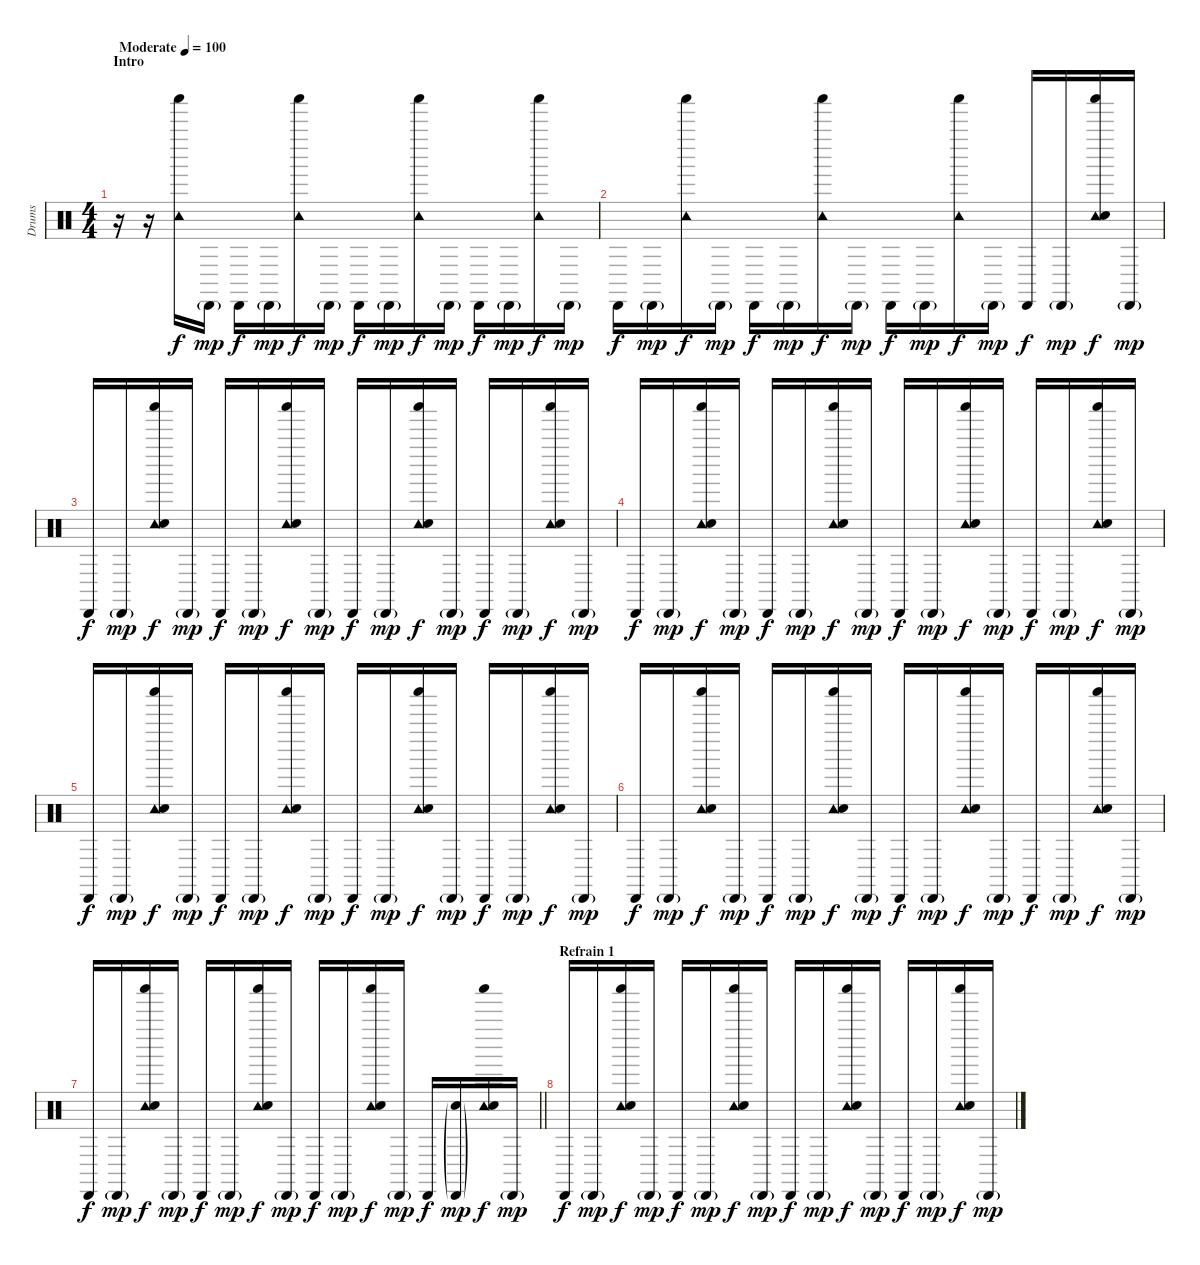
\track ("Drums" "Drums") {instrument percussion}
\staff {score}
\articulation defaults
\ts (4 4)
\section ("" "Intro")
\tempo (100 "Moderate")
\clef neutral
\ks c
r.16{dy f} r.16 ("Tambourine (hit)" "Shaker (hit)").16 "Cabasa (hit)"{g}.16{dy mp} "Cabasa (hit)".16{dy f} "Cabasa (hit)"{g}.16{dy mp} ("Tambourine (hit)" "Shaker (hit)").16{dy f} "Cabasa (hit)"{g}.16{dy mp} "Cabasa (hit)".16{dy f} "Cabasa (hit)"{g}.16{dy mp} ("Tambourine (hit)" "Shaker (hit)").16{dy f} "Cabasa (hit)"{g}.16{dy mp} "Cabasa (hit)".16{dy f} "Cabasa (hit)"{g}.16{dy mp} ("Tambourine (hit)" "Shaker (hit)").16{dy f} "Cabasa (hit)"{g}.16{dy mp} |
"Cabasa (hit)".16{dy f} "Cabasa (hit)"{g}.16{dy mp} ("Tambourine (hit)" "Shaker (hit)").16{dy f} "Cabasa (hit)"{g}.16{dy mp} "Cabasa (hit)".16{dy f} "Cabasa (hit)"{g}.16{dy mp} ("Tambourine (hit)" "Shaker (hit)").16{dy f} "Cabasa (hit)"{g}.16{dy mp} "Cabasa (hit)".16{dy f} "Cabasa (hit)"{g}.16{dy mp} ("Tambourine (hit)" "Shaker (hit)").16{dy f} "Cabasa (hit)"{g}.16{dy mp} "Cabasa (hit)".16{dy f} "Cabasa (hit)"{g}.16{dy mp} ("Tambourine (hit)" "Shaker (hit)" "Electric Snare (hit)").16{dy f} "Cabasa (hit)"{g}.16{dy mp} |
"Cabasa (hit)".16{dy f} "Cabasa (hit)"{g}.16{dy mp} ("Tambourine (hit)" "Shaker (hit)" "Electric Snare (hit)").16{dy f} "Cabasa (hit)"{g}.16{dy mp} "Cabasa (hit)".16{dy f} "Cabasa (hit)"{g}.16{dy mp} ("Tambourine (hit)" "Shaker (hit)" "Electric Snare (hit)").16{dy f} "Cabasa (hit)"{g}.16{dy mp} "Cabasa (hit)".16{dy f} "Cabasa (hit)"{g}.16{dy mp} ("Tambourine (hit)" "Shaker (hit)" "Electric Snare (hit)").16{dy f} "Cabasa (hit)"{g}.16{dy mp} "Cabasa (hit)".16{dy f} "Cabasa (hit)"{g}.16{dy mp} ("Tambourine (hit)" "Shaker (hit)" "Electric Snare (hit)").16{dy f} "Cabasa (hit)"{g}.16{dy mp} |
"Cabasa (hit)".16{dy f} "Cabasa (hit)"{g}.16{dy mp} ("Tambourine (hit)" "Shaker (hit)" "Electric Snare (hit)").16{dy f} "Cabasa (hit)"{g}.16{dy mp} "Cabasa (hit)".16{dy f} "Cabasa (hit)"{g}.16{dy mp} ("Tambourine (hit)" "Shaker (hit)" "Electric Snare (hit)").16{dy f} "Cabasa (hit)"{g}.16{dy mp} "Cabasa (hit)".16{dy f} "Cabasa (hit)"{g}.16{dy mp} ("Tambourine (hit)" "Shaker (hit)" "Electric Snare (hit)").16{dy f} "Cabasa (hit)"{g}.16{dy mp} "Cabasa (hit)".16{dy f} "Cabasa (hit)"{g}.16{dy mp} ("Tambourine (hit)" "Shaker (hit)" "Electric Snare (hit)").16{dy f} "Cabasa (hit)"{g}.16{dy mp} |
"Cabasa (hit)".16{dy f} "Cabasa (hit)"{g}.16{dy mp} ("Tambourine (hit)" "Shaker (hit)" "Electric Snare (hit)").16{dy f} "Cabasa (hit)"{g}.16{dy mp} "Cabasa (hit)".16{dy f} "Cabasa (hit)"{g}.16{dy mp} ("Tambourine (hit)" "Shaker (hit)" "Electric Snare (hit)").16{dy f} "Cabasa (hit)"{g}.16{dy mp} "Cabasa (hit)".16{dy f} "Cabasa (hit)"{g}.16{dy mp} ("Tambourine (hit)" "Shaker (hit)" "Electric Snare (hit)").16{dy f} "Cabasa (hit)"{g}.16{dy mp} "Cabasa (hit)".16{dy f} "Cabasa (hit)"{g}.16{dy mp} ("Tambourine (hit)" "Shaker (hit)" "Electric Snare (hit)").16{dy f} "Cabasa (hit)"{g}.16{dy mp} |
"Cabasa (hit)".16{dy f} "Cabasa (hit)"{g}.16{dy mp} ("Tambourine (hit)" "Shaker (hit)" "Electric Snare (hit)").16{dy f} "Cabasa (hit)"{g}.16{dy mp} "Cabasa (hit)".16{dy f} "Cabasa (hit)"{g}.16{dy mp} ("Tambourine (hit)" "Shaker (hit)" "Electric Snare (hit)").16{dy f} "Cabasa (hit)"{g}.16{dy mp} "Cabasa (hit)".16{dy f} "Cabasa (hit)"{g}.16{dy mp} ("Tambourine (hit)" "Shaker (hit)" "Electric Snare (hit)").16{dy f} "Cabasa (hit)"{g}.16{dy mp} "Cabasa (hit)".16{dy f} "Cabasa (hit)"{g}.16{dy mp} ("Tambourine (hit)" "Shaker (hit)" "Electric Snare (hit)").16{dy f} "Cabasa (hit)"{g}.16{dy mp} |
\barLineRight lightlight "Cabasa (hit)".16{dy f} "Cabasa (hit)"{g}.16{dy mp}
("Tambourine (hit)" "Shaker (hit)" "Electric Snare (hit)").16{dy f} "Cabasa (hit)"{g}.16{dy mp} "Cabasa (hit)".16{dy f} "Cabasa (hit)"{g}.16{dy mp} ("Tambourine (hit)" "Shaker (hit)" "Electric Snare (hit)").16{dy f} "Cabasa (hit)"{g}.16{dy mp} "Cabasa (hit)".16{dy f} "Cabasa (hit)"{g}.16{dy mp} ("Tambourine (hit)" "Shaker (hit)" "Electric Snare (hit)").16{dy f} "Cabasa (hit)"{g}.16{dy mp} "Cabasa (hit)".16{dy f} ("Cabasa (hit)"{g} "Electric Snare (hit)"{g}).16{dy mp} ("Tambourine (hit)" "Shaker (hit)" "Electric Snare (hit)").16{dy f} "Cabasa (hit)"{g}.16{dy mp} |
\section ("" "Refrain 1")
"Cabasa (hit)".16{dy f} "Cabasa (hit)"{g}.16{dy mp} ("Tambourine (hit)" "Shaker (hit)" "Electric Snare (hit)").16{dy f} "Cabasa (hit)"{g}.16{dy mp} "Cabasa (hit)".16{dy f} "Cabasa (hit)"{g}.16{dy mp} ("Tambourine (hit)" "Shaker (hit)" "Electric Snare (hit)").16{dy f} "Cabasa (hit)"{g}.16{dy mp} "Cabasa (hit)".16{dy f} "Cabasa (hit)"{g}.16{dy mp} ("Tambourine (hit)" "Shaker (hit)" "Electric Snare (hit)").16{dy f} "Cabasa (hit)"{g}.16{dy mp} "Cabasa (hit)".16{dy f} "Cabasa (hit)"{g}.16{dy mp} ("Tambourine (hit)" "Shaker (hit)" "Electric Snare (hit)").16{dy f} "Cabasa (hit)"{g}.16{dy mp}
